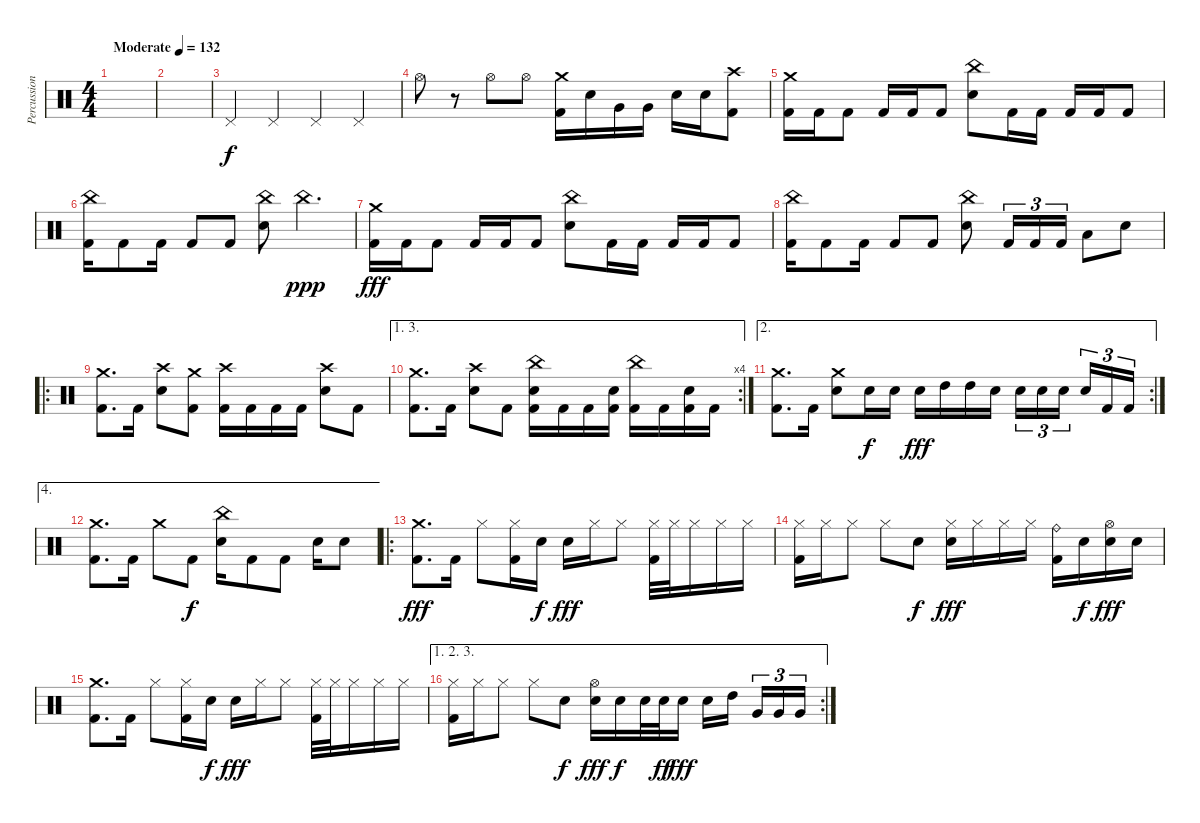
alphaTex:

\track ("Percussion" "Percussion") {instrument percussion}
\staff {score}
\articulation defaults
\ts (4 4)
\tempo (132 "Moderate")
\clef neutral
\ks c
|
|
"Pedal Hi-Hat (hit)".4 "Pedal Hi-Hat (hit)".4 "Pedal Hi-Hat (hit)".4 "Pedal Hi-Hat (hit)".4 |
"Hi-Hat (open)".8 r.8 "Hi-Hat (open)".8 "Hi-Hat (open)".8 ("Crash medium (hit)" "Kick (hit) 2").16 "Electric Snare (hit)".16 "Very Low Tom (hit)".16 "Very Low Tom (hit)".16 "Electric Snare (hit)".16 "Electric Snare (hit)".16 ("Kick (hit) 2" "Crash high (hit)").8 |
("Kick (hit) 2" "Crash medium (hit)").16 "Kick (hit) 2".16 "Kick (hit) 2".8 "Kick (hit) 2".16 "Kick (hit) 2".16 "Kick (hit) 2".8 ("China (hit)" "Electric Snare (hit)").8 "Kick (hit) 2".16 "Kick (hit) 2".16 "Kick (hit) 2".16 "Kick (hit) 2".16 "Kick (hit) 2".8 |
("Kick (hit) 2" "China (hit)").16 "Kick (hit) 2".8 "Kick (hit) 2".16 "Kick (hit) 2".8 "Kick (hit) 2".8 ("China (hit)" "Electric Snare (hit)").8 "China (hit)".4{d dy ppp} |
("Kick (hit) 2" "Crash medium (hit)").16{dy fff} "Kick (hit) 2".16 "Kick (hit) 2".8 "Kick (hit) 2".16 "Kick (hit) 2".16 "Kick (hit) 2".8 ("China (hit)" "Electric Snare (hit)").8 "Kick (hit) 2".16 "Kick (hit) 2".16 "Kick (hit) 2".16 "Kick (hit) 2".16 "Kick (hit) 2".8 |
("Kick (hit) 2" "China (hit)").16 "Kick (hit) 2".8 "Kick (hit) 2".16 "Kick (hit) 2".8 "Kick (hit) 2".8 ("Electric Snare (hit)" "China (hit)").8 "Kick (hit) 2".16{tu (3 2)} "Kick (hit) 2".16{tu (3 2)} "Kick (hit) 2".16{tu (3 2)} "Low Floor Tom (hit)".8 "Electric Snare (hit)".8 |
\ro
("Crash medium (hit)" "Kick (hit) 2").8{d} "Kick (hit) 2".16 ("Electric Snare (hit)" "Crash high (hit)").8 ("Kick (hit) 2" "Crash medium (hit)").8 ("Kick (hit) 2" "Crash high (hit)").16 "Kick (hit) 2".16 "Kick (hit) 2".16 "Kick (hit) 2".16 ("Crash high (hit)" "Electric Snare (hit)").8 "Kick (hit) 2".8 |
\ae (1 3)
\rc 4
("Crash medium (hit)" "Kick (hit) 2").8{d} "Kick (hit) 2".16 ("Electric Snare (hit)" "Crash high (hit)").8 "Kick (hit) 2".8 ("Electric Snare (hit)" "Kick (hit) 2" "China (hit)").16 "Kick (hit) 2".16 "Kick (hit) 2".16 ("Kick (hit) 2" "Electric Snare (hit)").16 ("Kick (hit) 2" "China (hit)").16 "Kick (hit) 2".16 ("Kick (hit) 2" "Electric Snare (hit)").16 "Kick (hit) 2".16 |
\ae 2
\rc 2
("Kick (hit) 2" "Crash medium (hit)").8{d} "Kick (hit) 2".16 ("Crash medium (hit)" "Electric Snare (hit)").8 "Electric Snare (hit)".16{dy f} "Electric Snare (hit)".16 "Electric Snare (hit)".16{dy fff} "High Tom (hit)".16 "High Tom (hit)".16 "Electric Snare (hit)".16 "Electric Snare (hit)".16{tu (3 2)} "Electric Snare (hit)".16{tu (3 2)} "Electric Snare (hit)".16{tu (3 2) beam splitsecondary} "Electric Snare (hit)".16{tu (3 2)} "Kick (hit) 2".16{tu (3 2)} "Kick (hit) 2".16{tu (3 2)} |
\ae 4
("Kick (hit) 2" "Crash medium (hit)").8{d} "Kick (hit) 2".16 "Crash medium (hit)".8 "Kick (hit) 2".8{dy f} ("China (hit)" "Electric Snare (hit)").16 "Kick (hit) 2".8 "Kick (hit) 2".8 "Electric Snare (hit)".16 "Electric Snare (hit)".8 |
\ro
("Kick (hit) 2" "Crash medium (hit)").8{d dy fff} "Kick (hit) 2".16 "Hi-Hat (closed)".8 ("Kick (hit) 2" "Hi-Hat (closed)").16 "Electric Snare (hit)".16{dy f} "Electric Snare (hit)".16{dy fff} "Hi-Hat (closed)".16 "Hi-Hat (closed)".8 ("Hi-Hat (closed)" "Kick (hit) 2").32 "Hi-Hat (closed)".32 "Hi-Hat (closed)".16 "Hi-Hat (closed)".16 "Hi-Hat (closed)".16 |
("Hi-Hat (closed)" "Kick (hit) 2").16 "Hi-Hat (closed)".16 "Hi-Hat (closed)".8 "Hi-Hat (closed)".8 "Electric Snare (hit)".8{dy f} ("Electric Snare (hit)" "Hi-Hat (closed)").16{dy fff} "Hi-Hat (closed)".16 "Hi-Hat (closed)".16 "Hi-Hat (closed)".16 ("Kick (hit) 2" "Ride (bell)").16 "Electric Snare (hit)".16{dy f} ("Electric Snare (hit)" "Hi-Hat (open)").16{dy fff} "Electric Snare (hit)".16 |
("Kick (hit) 2" "Crash medium (hit)").8{d} "Kick (hit) 2".16 "Hi-Hat (closed)".8 ("Kick (hit) 2" "Hi-Hat (closed)").16 "Electric Snare (hit)".16{dy f} "Electric Snare (hit)".16{dy fff} "Hi-Hat (closed)".16 "Hi-Hat (closed)".8 ("Hi-Hat (closed)" "Kick (hit) 2").32 "Hi-Hat (closed)".32 "Hi-Hat (closed)".16 "Hi-Hat (closed)".16 "Hi-Hat (closed)".16 |
\ae (1 2 3)
\rc 2
("Hi-Hat (closed)" "Kick (hit) 2").16 "Hi-Hat (closed)".16 "Hi-Hat (closed)".8 "Hi-Hat (closed)".8 "Electric Snare (hit)".8{dy f} ("Electric Snare (hit)" "Hi-Hat (open)").16{dy fff} "Electric Snare (hit)".16{dy f} "Electric Snare (hit)".32 "Electric Snare (hit)".32{dy ff} "Electric Snare (hit)".16{dy fff} "Electric Snare (hit)".16 "High Tom (hit)".16{beam splitsecondary} "Very Low Tom (hit)".16{tu (3 2)} "Very Low Tom (hit)".16{tu (3 2)} "Very Low Tom (hit)".16{tu (3 2)}
